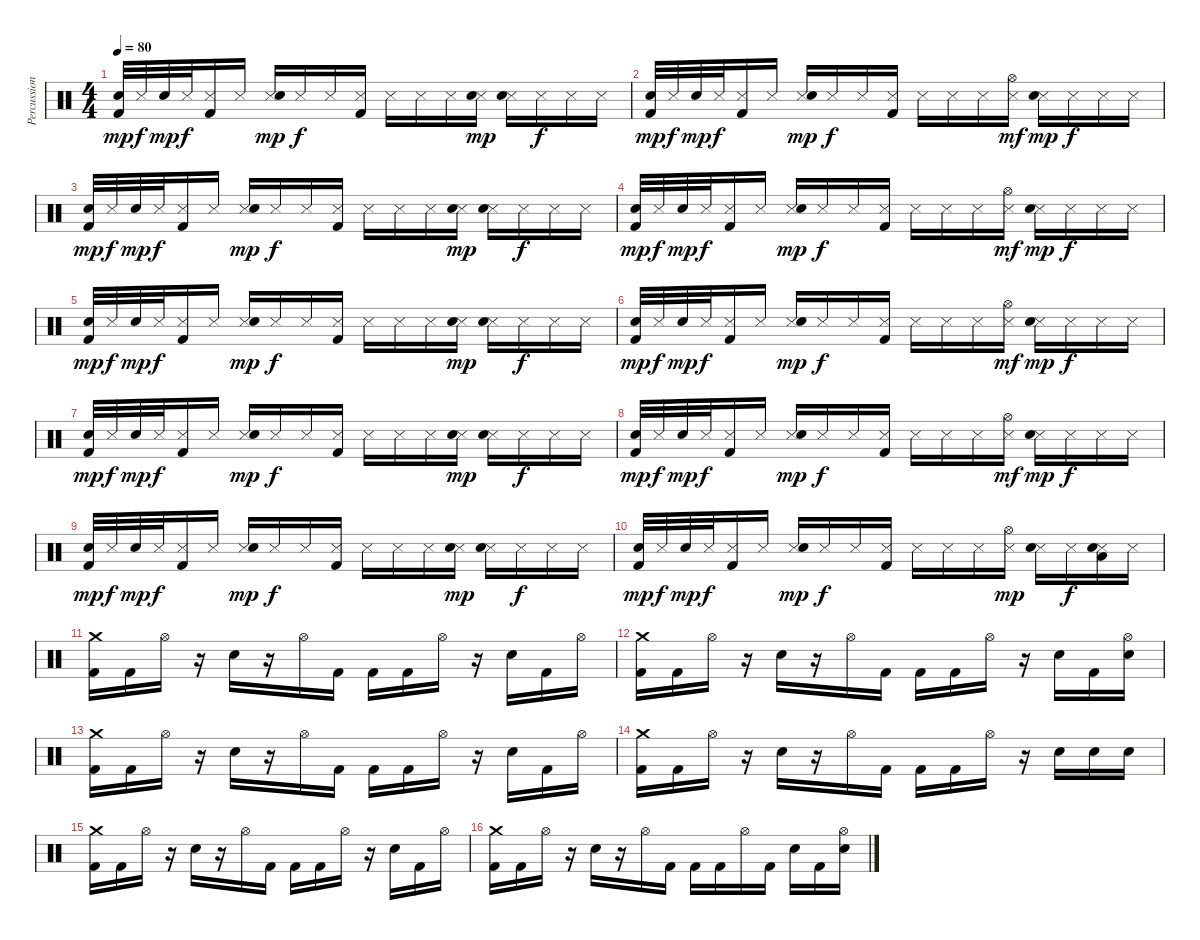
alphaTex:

\track ("Percussion" "Percussion") {instrument percussion}
\staff {score}
\articulation defaults
\ts (4 4)
\tempo 80
\clef neutral
\ks c
("Electric Snare (hit)" "Kick (hit) 2").32{dy mp} "Snare (side stick) 3".32{dy f} "Electric Snare (hit)".32{dy mp} "Snare (side stick) 3".32{dy f} ("Snare (side stick) 3" "Kick (hit) 2").16 "Snare (side stick) 3".16 ("Snare (side stick) 3" "Electric Snare (hit)").16{dy mp} "Snare (side stick) 3".16{dy f} "Snare (side stick) 3".16 ("Snare (side stick) 3" "Kick (hit) 2").16 "Snare (side stick) 3".16 "Snare (side stick) 3".16 "Snare (side stick) 3".16 ("Snare (side stick) 3" "Electric Snare (hit)").16{dy mp} ("Snare (side stick) 3" "Electric Snare (hit)").16 "Snare (side stick) 3".16{dy f} "Snare (side stick) 3".16 "Snare (side stick) 3".16 |
("Electric Snare (hit)" "Kick (hit) 2").32{dy mp} "Snare (side stick) 3".32{dy f} "Electric Snare (hit)".32{dy mp} "Snare (side stick) 3".32{dy f} ("Snare (side stick) 3" "Kick (hit) 2").16 "Snare (side stick) 3".16 ("Snare (side stick) 3" "Electric Snare (hit)").16{dy mp} "Snare (side stick) 3".16{dy f} "Snare (side stick) 3".16 ("Snare (side stick) 3" "Kick (hit) 2").16 "Snare (side stick) 3".16 "Snare (side stick) 3".16 "Snare (side stick) 3".16 ("Snare (side stick) 3" "Hi-Hat (open)").16{dy mf} ("Snare (side stick) 3" "Electric Snare (hit)").16{dy mp} "Snare (side stick) 3".16{dy f} "Snare (side stick) 3".16 "Snare (side stick) 3".16 |
("Electric Snare (hit)" "Kick (hit) 2").32{dy mp} "Snare (side stick) 3".32{dy f} "Electric Snare (hit)".32{dy mp} "Snare (side stick) 3".32{dy f} ("Snare (side stick) 3" "Kick (hit) 2").16 "Snare (side stick) 3".16 ("Snare (side stick) 3" "Electric Snare (hit)").16{dy mp} "Snare (side stick) 3".16{dy f} "Snare (side stick) 3".16 ("Snare (side stick) 3" "Kick (hit) 2").16 "Snare (side stick) 3".16 "Snare (side stick) 3".16 "Snare (side stick) 3".16 ("Snare (side stick) 3" "Electric Snare (hit)").16{dy mp} ("Snare (side stick) 3" "Electric Snare (hit)").16 "Snare (side stick) 3".16{dy f} "Snare (side stick) 3".16 "Snare (side stick) 3".16 |
("Electric Snare (hit)" "Kick (hit) 2").32{dy mp} "Snare (side stick) 3".32{dy f} "Electric Snare (hit)".32{dy mp} "Snare (side stick) 3".32{dy f} ("Snare (side stick) 3" "Kick (hit) 2").16 "Snare (side stick) 3".16 ("Snare (side stick) 3" "Electric Snare (hit)").16{dy mp} "Snare (side stick) 3".16{dy f} "Snare (side stick) 3".16 ("Snare (side stick) 3" "Kick (hit) 2").16 "Snare (side stick) 3".16 "Snare (side stick) 3".16 "Snare (side stick) 3".16 ("Snare (side stick) 3" "Hi-Hat (open)").16{dy mf} ("Snare (side stick) 3" "Electric Snare (hit)").16{dy mp} "Snare (side stick) 3".16{dy f} "Snare (side stick) 3".16 "Snare (side stick) 3".16 |
("Electric Snare (hit)" "Kick (hit) 2").32{dy mp} "Snare (side stick) 3".32{dy f} "Electric Snare (hit)".32{dy mp} "Snare (side stick) 3".32{dy f} ("Snare (side stick) 3" "Kick (hit) 2").16 "Snare (side stick) 3".16 ("Snare (side stick) 3" "Electric Snare (hit)").16{dy mp} "Snare (side stick) 3".16{dy f} "Snare (side stick) 3".16 ("Snare (side stick) 3" "Kick (hit) 2").16 "Snare (side stick) 3".16 "Snare (side stick) 3".16 "Snare (side stick) 3".16 ("Snare (side stick) 3" "Electric Snare (hit)").16{dy mp} ("Snare (side stick) 3" "Electric Snare (hit)").16 "Snare (side stick) 3".16{dy f} "Snare (side stick) 3".16 "Snare (side stick) 3".16 |
("Electric Snare (hit)" "Kick (hit) 2").32{dy mp} "Snare (side stick) 3".32{dy f} "Electric Snare (hit)".32{dy mp} "Snare (side stick) 3".32{dy f} ("Snare (side stick) 3" "Kick (hit) 2").16 "Snare (side stick) 3".16 ("Snare (side stick) 3" "Electric Snare (hit)").16{dy mp} "Snare (side stick) 3".16{dy f} "Snare (side stick) 3".16 ("Snare (side stick) 3" "Kick (hit) 2").16 "Snare (side stick) 3".16 "Snare (side stick) 3".16 "Snare (side stick) 3".16 ("Snare (side stick) 3" "Hi-Hat (open)").16{dy mf} ("Snare (side stick) 3" "Electric Snare (hit)").16{dy mp} "Snare (side stick) 3".16{dy f} "Snare (side stick) 3".16 "Snare (side stick) 3".16 |
("Electric Snare (hit)" "Kick (hit) 2").32{dy mp} "Snare (side stick) 3".32{dy f} "Electric Snare (hit)".32{dy mp} "Snare (side stick) 3".32{dy f} ("Snare (side stick) 3" "Kick (hit) 2").16 "Snare (side stick) 3".16 ("Snare (side stick) 3" "Electric Snare (hit)").16{dy mp} "Snare (side stick) 3".16{dy f} "Snare (side stick) 3".16 ("Snare (side stick) 3" "Kick (hit) 2").16 "Snare (side stick) 3".16 "Snare (side stick) 3".16 "Snare (side stick) 3".16 ("Snare (side stick) 3" "Electric Snare (hit)").16{dy mp} ("Snare (side stick) 3" "Electric Snare (hit)").16 "Snare (side stick) 3".16{dy f} "Snare (side stick) 3".16 "Snare (side stick) 3".16 |
("Electric Snare (hit)" "Kick (hit) 2").32{dy mp} "Snare (side stick) 3".32{dy f} "Electric Snare (hit)".32{dy mp} "Snare (side stick) 3".32{dy f} ("Snare (side stick) 3" "Kick (hit) 2").16 "Snare (side stick) 3".16 ("Snare (side stick) 3" "Electric Snare (hit)").16{dy mp} "Snare (side stick) 3".16{dy f} "Snare (side stick) 3".16 ("Snare (side stick) 3" "Kick (hit) 2").16 "Snare (side stick) 3".16 "Snare (side stick) 3".16 "Snare (side stick) 3".16 ("Snare (side stick) 3" "Hi-Hat (open)").16{dy mf} ("Snare (side stick) 3" "Electric Snare (hit)").16{dy mp} "Snare (side stick) 3".16{dy f} "Snare (side stick) 3".16 "Snare (side stick) 3".16 |
("Electric Snare (hit)" "Kick (hit) 2").32{dy mp} "Snare (side stick) 3".32{dy f} "Electric Snare (hit)".32{dy mp} "Snare (side stick) 3".32{dy f} ("Snare (side stick) 3" "Kick (hit) 2").16 "Snare (side stick) 3".16 ("Snare (side stick) 3" "Electric Snare (hit)").16{dy mp} "Snare (side stick) 3".16{dy f} "Snare (side stick) 3".16 ("Snare (side stick) 3" "Kick (hit) 2").16 "Snare (side stick) 3".16 "Snare (side stick) 3".16 "Snare (side stick) 3".16 ("Snare (side stick) 3" "Electric Snare (hit)").16{dy mp} ("Snare (side stick) 3" "Electric Snare (hit)").16 "Snare (side stick) 3".16{dy f} "Snare (side stick) 3".16 "Snare (side stick) 3".16 |
("Electric Snare (hit)" "Kick (hit) 2").32{dy mp} "Snare (side stick) 3".32{dy f} "Electric Snare (hit)".32{dy mp} "Snare (side stick) 3".32{dy f} ("Snare (side stick) 3" "Kick (hit) 2").16 "Snare (side stick) 3".16 ("Snare (side stick) 3" "Electric Snare (hit)").16{dy mp} "Snare (side stick) 3".16{dy f} "Snare (side stick) 3".16 ("Snare (side stick) 3" "Kick (hit) 2").16 "Snare (side stick) 3".16 "Snare (side stick) 3".16 "Snare (side stick) 3".16 ("Snare (side stick) 3" "Hi-Hat (open)").16{dy mp} ("Snare (side stick) 3" "Electric Snare (hit)").16 "Snare (side stick) 3".16{dy f} ("Snare (side stick) 3" "Electric Snare (hit)" "Low Floor Tom (hit)").16 "Snare (side stick) 3".16 |
("Crash medium (hit)" "Kick (hit) 2").16 "Kick (hit) 2".16 "Hi-Hat (open)".16 r.16 "Electric Snare (hit)".16 r.16 "Hi-Hat (open)".16 "Kick (hit) 2".16 "Kick (hit) 2".16 "Kick (hit) 2".16 "Hi-Hat (open)".16 r.16 "Electric Snare (hit)".16 "Kick (hit) 2".16 "Hi-Hat (open)".16 |
("Crash medium (hit)" "Kick (hit) 2").16 "Kick (hit) 2".16 "Hi-Hat (open)".16 r.16 "Electric Snare (hit)".16 r.16 "Hi-Hat (open)".16 "Kick (hit) 2".16 "Kick (hit) 2".16 "Kick (hit) 2".16 "Hi-Hat (open)".16 r.16 "Electric Snare (hit)".16 "Kick (hit) 2".16 ("Hi-Hat (open)" "Electric Snare (hit)").16 |
("Crash medium (hit)" "Kick (hit) 2").16 "Kick (hit) 2".16 "Hi-Hat (open)".16 r.16 "Electric Snare (hit)".16 r.16 "Hi-Hat (open)".16 "Kick (hit) 2".16 "Kick (hit) 2".16 "Kick (hit) 2".16 "Hi-Hat (open)".16 r.16 "Electric Snare (hit)".16 "Kick (hit) 2".16 "Hi-Hat (open)".16 |
("Crash medium (hit)" "Kick (hit) 2").16 "Kick (hit) 2".16 "Hi-Hat (open)".16 r.16 "Electric Snare (hit)".16 r.16 "Hi-Hat (open)".16 "Kick (hit) 2".16 "Kick (hit) 2".16 "Kick (hit) 2".16 "Hi-Hat (open)".16 r.16 "Electric Snare (hit)".16 "Electric Snare (hit)".16 "Electric Snare (hit)".16 |
("Crash medium (hit)" "Kick (hit) 2").16 "Kick (hit) 2".16 "Hi-Hat (open)".16 r.16 "Electric Snare (hit)".16 r.16 "Hi-Hat (open)".16 "Kick (hit) 2".16 "Kick (hit) 2".16 "Kick (hit) 2".16 "Hi-Hat (open)".16 r.16 "Electric Snare (hit)".16 "Kick (hit) 2".16 "Hi-Hat (open)".16 |
("Crash medium (hit)" "Kick (hit) 2").16 "Kick (hit) 2".16 "Hi-Hat (open)".16 r.16 "Electric Snare (hit)".16 r.16 "Hi-Hat (open)".16 "Kick (hit) 2".16 "Kick (hit) 2".16 "Kick (hit) 2".16 "Hi-Hat (open)".16 "Kick (hit) 2".16 "Electric Snare (hit)".16 "Kick (hit) 2".16 ("Hi-Hat (open)" "Electric Snare (hit)").16
